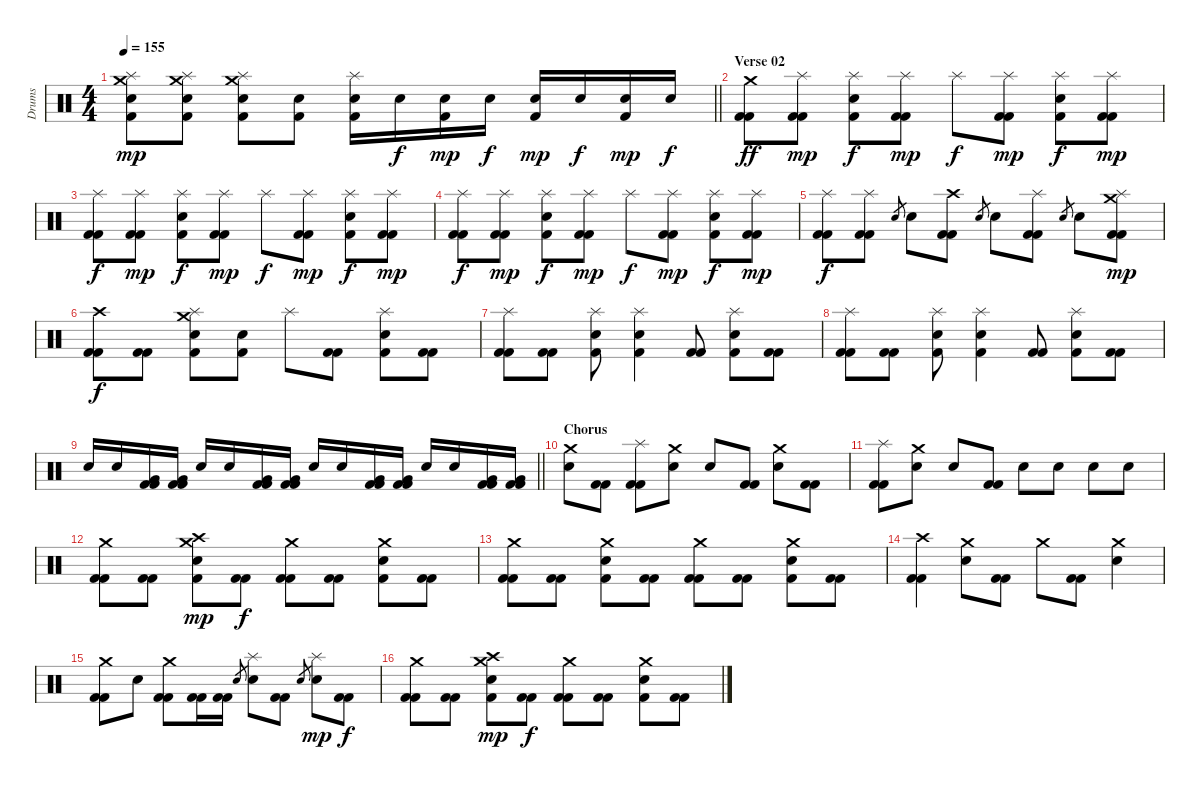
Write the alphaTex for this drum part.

\track ("Drums" "Drums") {instrument percussion}
\staff {score}
\articulation defaults
\ts (4 4)
\tempo 155
\clef neutral
\barLineRight lightlight
\ks c
("Crash medium (hit)" "Splash (hit)" "Electric Snare (hit)" "Kick (hit) 2").8{dy mp} ("Crash medium (hit)" "Splash (hit)" "Electric Snare (hit)" "Kick (hit) 2").8 ("Crash medium (hit)" "Splash (hit)" "Electric Snare (hit)" "Kick (hit) 2").8 ("Electric Snare (hit)" "Kick (hit) 2").8 ("Splash (hit)" "Electric Snare (hit)" "Kick (hit) 2").16 "Electric Snare (hit)".16{dy f} ("Electric Snare (hit)" "Kick (hit) 2").16{dy mp} "Electric Snare (hit)".16{dy f} ("Electric Snare (hit)" "Kick (hit) 2").16{dy mp} "Electric Snare (hit)".16{dy f} ("Electric Snare (hit)" "Kick (hit) 2").16{dy mp} "Electric Snare (hit)".16{dy f} |
\section ("" "Verse 02")
("Crash medium (hit)" "Kick (hit) 2" "Kick (hit) 2").8{dy ff} ("Splash (hit)" "Kick (hit) 2" "Kick (hit) 2").8{dy mp} ("Splash (hit)" "Electric Snare (hit)" "Kick (hit) 2").8{dy f} ("Splash (hit)" "Kick (hit) 2" "Kick (hit) 2").8{dy mp} "Splash (hit)".8{dy f} ("Splash (hit)" "Kick (hit) 2" "Kick (hit) 2").8{dy mp} ("Splash (hit)" "Electric Snare (hit)" "Kick (hit) 2").8{dy f} ("Splash (hit)" "Kick (hit) 2" "Kick (hit) 2").8{dy mp} |
("Splash (hit)" "Kick (hit) 2" "Kick (hit) 2").8{dy f} ("Splash (hit)" "Kick (hit) 2" "Kick (hit) 2").8{dy mp} ("Splash (hit)" "Electric Snare (hit)" "Kick (hit) 2").8{dy f} ("Splash (hit)" "Kick (hit) 2" "Kick (hit) 2").8{dy mp} "Splash (hit)".8{dy f} ("Splash (hit)" "Kick (hit) 2" "Kick (hit) 2").8{dy mp} ("Splash (hit)" "Electric Snare (hit)" "Kick (hit) 2").8{dy f} ("Splash (hit)" "Kick (hit) 2" "Kick (hit) 2").8{dy mp} |
("Splash (hit)" "Kick (hit) 2" "Kick (hit) 2").8{dy f} ("Splash (hit)" "Kick (hit) 2" "Kick (hit) 2").8{dy mp} ("Splash (hit)" "Electric Snare (hit)" "Kick (hit) 2").8{dy f} ("Splash (hit)" "Kick (hit) 2" "Kick (hit) 2").8{dy mp} "Splash (hit)".8{dy f} ("Splash (hit)" "Kick (hit) 2" "Kick (hit) 2").8{dy mp} ("Splash (hit)" "Electric Snare (hit)" "Kick (hit) 2").8{dy f} ("Splash (hit)" "Kick (hit) 2" "Kick (hit) 2").8{dy mp} |
("Splash (hit)" "Kick (hit) 2" "Kick (hit) 2").8{dy f} ("Splash (hit)" "Kick (hit) 2" "Kick (hit) 2").8 "Electric Snare (hit)".8{gr} "Electric Snare (hit)".8 ("Crash high (hit)" "Kick (hit) 2" "Kick (hit) 2").8 "Electric Snare (hit)".8{gr} "Electric Snare (hit)".8 ("Splash (hit)" "Kick (hit) 2" "Kick (hit) 2").8 "Electric Snare (hit)".8{gr} "Electric Snare (hit)".8 ("Crash medium (hit)" "Splash (hit)" "Kick (hit) 2" "Kick (hit) 2").8{dy mp} |
("Crash high (hit)" "Kick (hit) 2" "Kick (hit) 2").8{dy f} ("Kick (hit) 2" "Kick (hit) 2").8 ("Crash medium (hit)" "Splash (hit)" "Electric Snare (hit)" "Kick (hit) 2").8 ("Electric Snare (hit)" "Kick (hit) 2").8 "Splash (hit)".8 ("Kick (hit) 2" "Kick (hit) 2").8 ("Splash (hit)" "Electric Snare (hit)" "Kick (hit) 2").8 ("Kick (hit) 2" "Kick (hit) 2").8 |
("Splash (hit)" "Kick (hit) 2" "Kick (hit) 2").8 ("Kick (hit) 2" "Kick (hit) 2").8 ("Splash (hit)" "Electric Snare (hit)" "Kick (hit) 2").8 ("Splash (hit)" "Electric Snare (hit)" "Kick (hit) 2").4 ("Kick (hit) 2" "Kick (hit) 2").8 ("Splash (hit)" "Electric Snare (hit)" "Kick (hit) 2").8 ("Kick (hit) 2" "Kick (hit) 2").8 |
("Splash (hit)" "Kick (hit) 2" "Kick (hit) 2").8 ("Kick (hit) 2" "Kick (hit) 2").8 ("Splash (hit)" "Electric Snare (hit)" "Kick (hit) 2").8 ("Splash (hit)" "Electric Snare (hit)" "Kick (hit) 2").4 ("Kick (hit) 2" "Kick (hit) 2").8 ("Splash (hit)" "Electric Snare (hit)" "Kick (hit) 2").8 ("Kick (hit) 2" "Kick (hit) 2").8 |
\barLineRight lightlight "Electric Snare (hit)".16 "Electric Snare (hit)".16
("Very Low Tom (hit)" "Kick (hit) 2" "Kick (hit) 2").16 ("Very Low Tom (hit)" "Kick (hit) 2" "Kick (hit) 2").16 "Electric Snare (hit)".16 "Electric Snare (hit)".16 ("Very Low Tom (hit)" "Kick (hit) 2" "Kick (hit) 2").16 ("Very Low Tom (hit)" "Kick (hit) 2" "Kick (hit) 2").16 "Electric Snare (hit)".16 "Electric Snare (hit)".16 ("Very Low Tom (hit)" "Kick (hit) 2" "Kick (hit) 2").16 ("Very Low Tom (hit)" "Kick (hit) 2" "Kick (hit) 2").16 "Electric Snare (hit)".16 "Electric Snare (hit)".16 ("Very Low Tom (hit)" "Kick (hit) 2" "Kick (hit) 2").16 ("Very Low Tom (hit)" "Kick (hit) 2" "Kick (hit) 2").16 |
\section ("" "Chorus")
("Crash medium (hit)" "Electric Snare (hit)").8 ("Kick (hit) 2" "Kick (hit) 2").8 ("Splash (hit)" "Kick (hit) 2" "Kick (hit) 2").8 ("Crash medium (hit)" "Electric Snare (hit)").8 "Electric Snare (hit)".8 ("Kick (hit) 2" "Kick (hit) 2").8 ("Crash medium (hit)" "Electric Snare (hit)").8 ("Kick (hit) 2" "Kick (hit) 2").8 |
("Splash (hit)" "Kick (hit) 2" "Kick (hit) 2").8 ("Crash medium (hit)" "Electric Snare (hit)").8 "Electric Snare (hit)".8 ("Kick (hit) 2" "Kick (hit) 2").8 "Electric Snare (hit)".8 "Electric Snare (hit)".8 "Electric Snare (hit)".8 "Electric Snare (hit)".8 |
("Crash medium (hit)" "Kick (hit) 2" "Kick (hit) 2").8 ("Kick (hit) 2" "Kick (hit) 2").8 ("Crash medium (hit)" "Crash high (hit)" "Electric Snare (hit)" "Kick (hit) 2").8{dy mp} ("Kick (hit) 2" "Kick (hit) 2").8{dy f} ("Crash medium (hit)" "Kick (hit) 2" "Kick (hit) 2").8 ("Kick (hit) 2" "Kick (hit) 2").8 ("Crash medium (hit)" "Electric Snare (hit)" "Kick (hit) 2").8 ("Kick (hit) 2" "Kick (hit) 2").8 |
("Crash medium (hit)" "Kick (hit) 2" "Kick (hit) 2").8 ("Kick (hit) 2" "Kick (hit) 2").8 ("Crash medium (hit)" "Electric Snare (hit)" "Kick (hit) 2").8 ("Kick (hit) 2" "Kick (hit) 2").8 ("Crash medium (hit)" "Kick (hit) 2" "Kick (hit) 2").8 ("Kick (hit) 2" "Kick (hit) 2").8 ("Crash medium (hit)" "Electric Snare (hit)" "Kick (hit) 2").8 ("Kick (hit) 2" "Kick (hit) 2").8 |
("Crash high (hit)" "Kick (hit) 2" "Kick (hit) 2").4 ("Crash medium (hit)" "Electric Snare (hit)").8 ("Kick (hit) 2" "Kick (hit) 2").8 "Crash medium (hit)".8 ("Kick (hit) 2" "Kick (hit) 2").8 ("Crash medium (hit)" "Electric Snare (hit)").4 |
("Crash medium (hit)" "Kick (hit) 2" "Kick (hit) 2").8 "Electric Snare (hit)".8 ("Crash medium (hit)" "Kick (hit) 2" "Kick (hit) 2").8 ("Kick (hit) 2" "Kick (hit) 2").16 ("Kick (hit) 2" "Kick (hit) 2").16 "Electric Snare (hit)".8{gr} ("Splash (hit)" "Electric Snare (hit)").8 ("Kick (hit) 2" "Kick (hit) 2").8 "Electric Snare (hit)".8{gr} ("Splash (hit)" "Electric Snare (hit)").8{dy mp} ("Kick (hit) 2" "Kick (hit) 2").8{dy f} |
("Crash medium (hit)" "Kick (hit) 2" "Kick (hit) 2").8 ("Kick (hit) 2" "Kick (hit) 2").8 ("Crash medium (hit)" "Crash high (hit)" "Electric Snare (hit)" "Kick (hit) 2").8{dy mp} ("Kick (hit) 2" "Kick (hit) 2").8{dy f} ("Crash medium (hit)" "Kick (hit) 2" "Kick (hit) 2").8 ("Kick (hit) 2" "Kick (hit) 2").8 ("Crash medium (hit)" "Electric Snare (hit)" "Kick (hit) 2").8 ("Kick (hit) 2" "Kick (hit) 2").8
